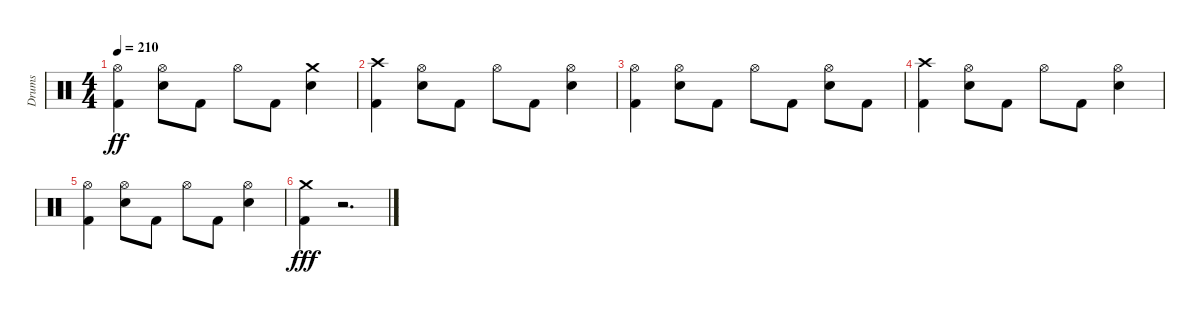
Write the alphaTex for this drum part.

\track ("Drums" "Drums") {instrument percussion}
\staff {score}
\articulation defaults
\ts (4 4)
\tempo 210
\clef neutral
\ks c
("Hi-Hat (open)" "Kick (hit) 2").4{dy ff} ("Hi-Hat (open)" "Electric Snare (hit)").8 "Kick (hit) 2".8 "Hi-Hat (open)".8 "Kick (hit) 2".8 ("Crash medium (hit)" "Electric Snare (hit)").4 |
("Crash high (hit)" "Kick (hit) 2").4 ("Hi-Hat (open)" "Electric Snare (hit)").8 "Kick (hit) 2".8 "Hi-Hat (open)".8 "Kick (hit) 2".8 ("Hi-Hat (open)" "Electric Snare (hit)").4 |
("Hi-Hat (open)" "Kick (hit) 2").4 ("Hi-Hat (open)" "Electric Snare (hit)").8 "Kick (hit) 2".8 "Hi-Hat (open)".8 "Kick (hit) 2".8 ("Hi-Hat (open)" "Electric Snare (hit)").8 "Kick (hit) 2".8 |
("Crash high (hit)" "Kick (hit) 2").4 ("Hi-Hat (open)" "Electric Snare (hit)").8 "Kick (hit) 2".8 "Hi-Hat (open)".8 "Kick (hit) 2".8 ("Hi-Hat (open)" "Electric Snare (hit)").4 |
("Hi-Hat (open)" "Kick (hit) 2").4 ("Hi-Hat (open)" "Electric Snare (hit)").8 "Kick (hit) 2".8 "Hi-Hat (open)".8 "Kick (hit) 2".8 ("Hi-Hat (open)" "Electric Snare (hit)").4 |
("Crash medium (hit)" "Kick (hit) 2").4{dy fff} r.2{d}
